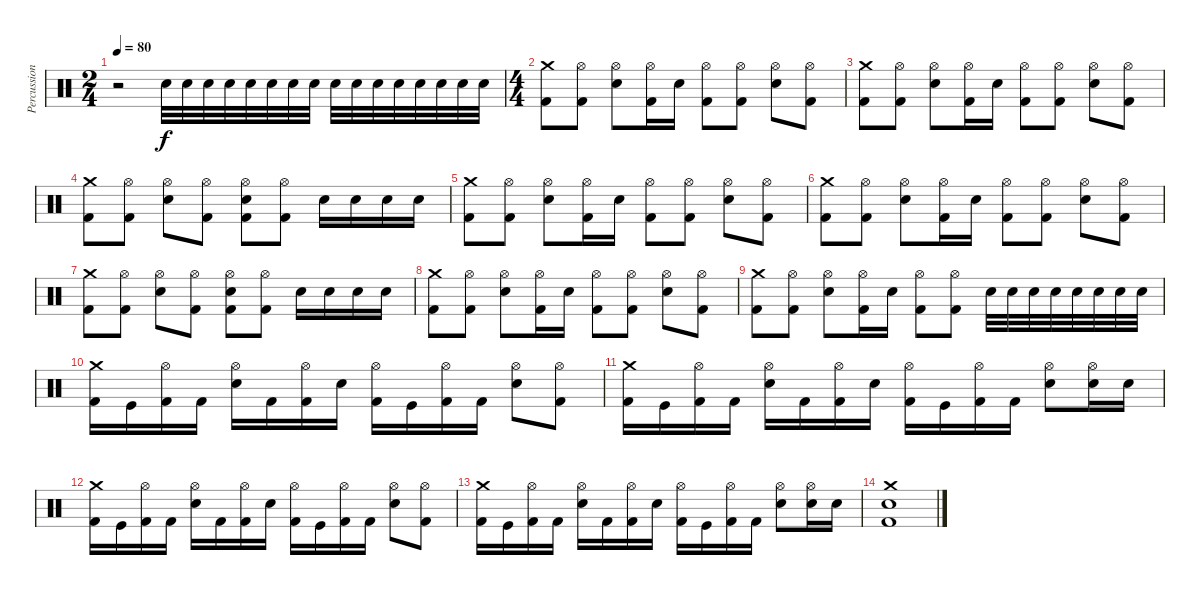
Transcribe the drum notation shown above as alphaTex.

\track ("Percussions" "Percussion") {instrument percussion}
\staff {score}
\articulation defaults
\ts (2 4)
\tempo 80
\clef neutral
\ks c
r.2{dy f} "Snare (hit) 2".32 "Snare (hit) 2".32 "Snare (hit) 2".32 "Snare (hit) 2".32 "Snare (hit) 2".32 "Snare (hit) 2".32 "Snare (hit) 2".32 "Snare (hit) 2".32 "Snare (hit) 2".32 "Snare (hit) 2".32 "Snare (hit) 2".32 "Snare (hit) 2".32 "Snare (hit) 2".32 "Snare (hit) 2".32 "Snare (hit) 2".32 "Snare (hit) 2".32 |
\ts (4 4)
("Crash medium (hit)" "Kick (hit) 2").8 ("Hi-Hat (open)" "Kick (hit) 2").8 ("Hi-Hat (open)" "Snare (hit) 2").8 ("Hi-Hat (open)" "Kick (hit) 2").16 "Snare (hit) 2".16 ("Hi-Hat (open)" "Kick (hit) 2").8 ("Hi-Hat (open)" "Kick (hit) 2").8 ("Hi-Hat (open)" "Snare (hit) 2").8 ("Hi-Hat (open)" "Kick (hit) 2").8 |
("Crash medium (hit)" "Kick (hit) 2").8 ("Hi-Hat (open)" "Kick (hit) 2").8 ("Hi-Hat (open)" "Snare (hit) 2").8 ("Hi-Hat (open)" "Kick (hit) 2").16 "Snare (hit) 2".16 ("Hi-Hat (open)" "Kick (hit) 2").8 ("Hi-Hat (open)" "Kick (hit) 2").8 ("Hi-Hat (open)" "Snare (hit) 2").8 ("Hi-Hat (open)" "Kick (hit) 2").8 |
("Crash medium (hit)" "Kick (hit) 2").8 ("Hi-Hat (open)" "Kick (hit) 2").8 ("Hi-Hat (open)" "Snare (hit) 2").8 ("Hi-Hat (open)" "Kick (hit) 2").8 ("Hi-Hat (open)" "Snare (hit) 2" "Kick (hit) 2").8 ("Hi-Hat (open)" "Kick (hit) 2").8 "Snare (hit) 2".16 "Snare (hit) 2".16 "Snare (hit) 2".16 "Snare (hit) 2".16 |
("Crash medium (hit)" "Kick (hit) 2").8 ("Hi-Hat (open)" "Kick (hit) 2").8 ("Hi-Hat (open)" "Snare (hit) 2").8 ("Hi-Hat (open)" "Kick (hit) 2").16 "Snare (hit) 2".16 ("Hi-Hat (open)" "Kick (hit) 2").8 ("Hi-Hat (open)" "Kick (hit) 2").8 ("Hi-Hat (open)" "Snare (hit) 2").8 ("Hi-Hat (open)" "Kick (hit) 2").8 |
("Crash medium (hit)" "Kick (hit) 2").8 ("Hi-Hat (open)" "Kick (hit) 2").8 ("Hi-Hat (open)" "Snare (hit) 2").8 ("Hi-Hat (open)" "Kick (hit) 2").16 "Snare (hit) 2".16 ("Hi-Hat (open)" "Kick (hit) 2").8 ("Hi-Hat (open)" "Kick (hit) 2").8 ("Hi-Hat (open)" "Snare (hit) 2").8 ("Hi-Hat (open)" "Kick (hit) 2").8 |
("Crash medium (hit)" "Kick (hit) 2").8 ("Hi-Hat (open)" "Kick (hit) 2").8 ("Hi-Hat (open)" "Snare (hit) 2").8 ("Hi-Hat (open)" "Kick (hit) 2").8 ("Hi-Hat (open)" "Snare (hit) 2" "Kick (hit) 2").8 ("Hi-Hat (open)" "Kick (hit) 2").8 "Snare (hit) 2".16 "Snare (hit) 2".16 "Snare (hit) 2".16 "Snare (hit) 2".16 |
("Crash medium (hit)" "Kick (hit) 2").8 ("Hi-Hat (open)" "Kick (hit) 2").8 ("Hi-Hat (open)" "Snare (hit) 2").8 ("Hi-Hat (open)" "Kick (hit) 2").16 "Snare (hit) 2".16 ("Hi-Hat (open)" "Kick (hit) 2").8 ("Hi-Hat (open)" "Kick (hit) 2").8 ("Hi-Hat (open)" "Snare (hit) 2").8 ("Hi-Hat (open)" "Kick (hit) 2").8 |
("Crash medium (hit)" "Kick (hit) 2").8 ("Hi-Hat (open)" "Kick (hit) 2").8 ("Hi-Hat (open)" "Snare (hit) 2").8 ("Hi-Hat (open)" "Kick (hit) 2").16 "Snare (hit) 2".16 ("Hi-Hat (open)" "Kick (hit) 2").8 ("Hi-Hat (open)" "Kick (hit) 2").8 "Snare (hit) 2".32 "Snare (hit) 2".32 "Snare (hit) 2".32 "Snare (hit) 2".32 "Snare (hit) 2".32 "Snare (hit) 2".32 "Snare (hit) 2".32 "Snare (hit) 2".32 |
("Crash medium (hit)" "Kick (hit) 2").16 "Kick (hit)".16 ("Hi-Hat (open)" "Kick (hit) 2").16 "Kick (hit) 2".16 ("Hi-Hat (open)" "Snare (hit) 2").16 "Kick (hit) 2".16 ("Hi-Hat (open)" "Kick (hit) 2").16 "Snare (hit) 2".16 ("Hi-Hat (open)" "Kick (hit) 2").16 "Kick (hit)".16 ("Hi-Hat (open)" "Kick (hit) 2").16 "Kick (hit) 2".16 ("Hi-Hat (open)" "Snare (hit) 2").8 ("Hi-Hat (open)" "Kick (hit) 2").8 |
("Crash medium (hit)" "Kick (hit) 2").16 "Kick (hit)".16 ("Hi-Hat (open)" "Kick (hit) 2").16 "Kick (hit) 2".16 ("Hi-Hat (open)" "Snare (hit) 2").16 "Kick (hit) 2".16 ("Hi-Hat (open)" "Kick (hit) 2").16 "Snare (hit) 2".16 ("Hi-Hat (open)" "Kick (hit) 2").16 "Kick (hit)".16 ("Hi-Hat (open)" "Kick (hit) 2").16 "Kick (hit) 2".16 ("Hi-Hat (open)" "Snare (hit) 2").8 ("Hi-Hat (open)" "Snare (hit) 2").16 "Snare (hit) 2".16 |
("Crash medium (hit)" "Kick (hit) 2").16 "Kick (hit)".16 ("Hi-Hat (open)" "Kick (hit) 2").16 "Kick (hit) 2".16 ("Hi-Hat (open)" "Snare (hit) 2").16 "Kick (hit) 2".16 ("Hi-Hat (open)" "Kick (hit) 2").16 "Snare (hit) 2".16 ("Hi-Hat (open)" "Kick (hit) 2").16 "Kick (hit)".16 ("Hi-Hat (open)" "Kick (hit) 2").16 "Kick (hit) 2".16 ("Hi-Hat (open)" "Snare (hit) 2").8 ("Hi-Hat (open)" "Kick (hit) 2").8 |
("Crash medium (hit)" "Kick (hit) 2").16 "Kick (hit)".16 ("Hi-Hat (open)" "Kick (hit) 2").16 "Kick (hit) 2".16 ("Hi-Hat (open)" "Snare (hit) 2").16 "Kick (hit) 2".16 ("Hi-Hat (open)" "Kick (hit) 2").16 "Snare (hit) 2".16 ("Hi-Hat (open)" "Kick (hit) 2").16 "Kick (hit)".16 ("Hi-Hat (open)" "Kick (hit) 2").16 "Kick (hit) 2".16 ("Hi-Hat (open)" "Snare (hit) 2").8 ("Hi-Hat (open)" "Snare (hit) 2").16 "Snare (hit) 2".16 |
("Crash medium (hit)" "Snare (hit) 2" "Kick (hit) 2").1
